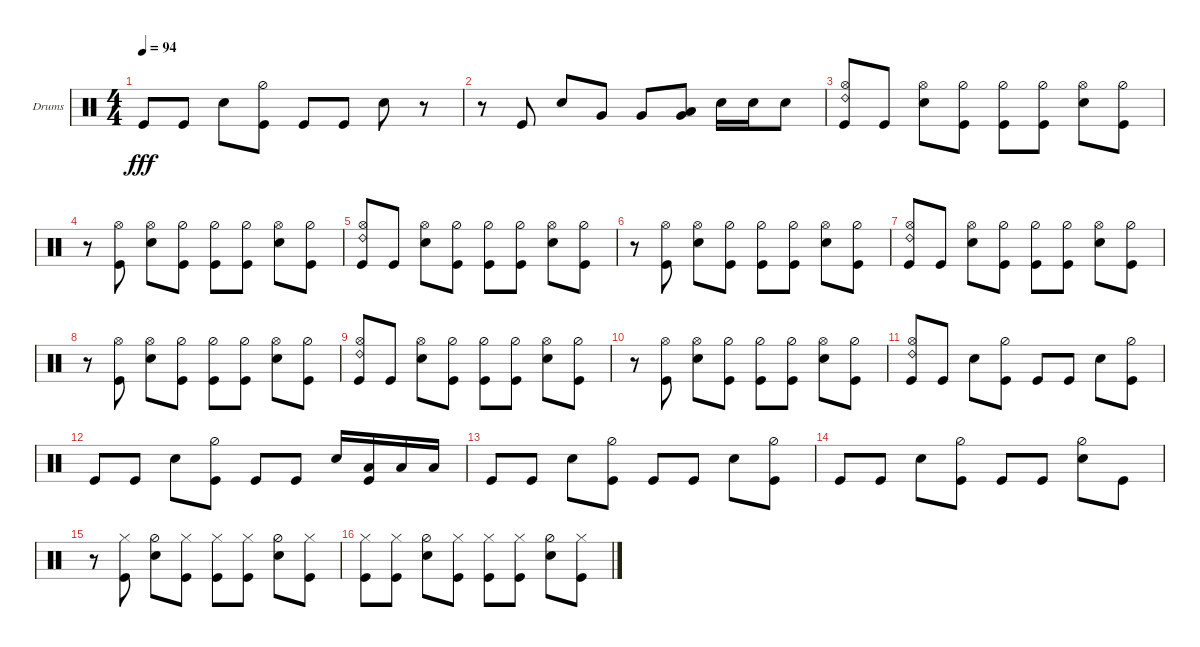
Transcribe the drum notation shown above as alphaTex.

\defaultSystemsLayout 4
\bracketExtendMode groupsimilarinstruments
\firstSystemTrackNameOrientation horizontal
\otherSystemsTrackNameOrientation horizontal
\track ("Drumkit" "Drums") {instrument percussion}
\staff {score}
\articulation defaults
\ts (4 4)
\tempo 94
\clef neutral
\scale
0.333333
\ks c "Kick (hit)".8{dy fff} "Kick (hit)".8 "Snare (hit) 2".8
("Kick (hit)" "Hi-Hat (half)").8 "Kick (hit)".8 "Kick (hit)".8 "Snare (hit) 2".8 r.8 |
\scale
0.333333 r.8 "Kick (hit)".8 "Snare (hit) 2".8 "Very Low Tom (hit)".8 "Very Low Tom (hit)".8 ("Low Tom (hit)" "Very Low Tom (hit)").8 "Snare (hit) 2".16 "Snare (hit) 2".16 "Snare (hit) 2".8 |
("Hi-Hat (open)" "Ride (bell) 2" "Kick (hit)").8 "Kick (hit)".8 ("Hi-Hat (open)" "Snare (hit) 2").8 ("Hi-Hat (half)" "Kick (hit)").8 ("Hi-Hat (half)" "Kick (hit)").8 ("Hi-Hat (half)" "Kick (hit)").8 ("Hi-Hat (open)" "Snare (hit) 2").8 ("Hi-Hat (half)" "Kick (hit)").8 |
r.8 ("Kick (hit)" "Hi-Hat (open)").8 ("Hi-Hat (open)" "Snare (hit) 2").8 ("Hi-Hat (half)" "Kick (hit)").8 ("Hi-Hat (half)" "Kick (hit)").8 ("Hi-Hat (half)" "Kick (hit)").8 ("Hi-Hat (open)" "Snare (hit) 2").8 ("Hi-Hat (half)" "Kick (hit)").8 |
("Hi-Hat (open)" "Ride (bell) 2" "Kick (hit)").8 "Kick (hit)".8 ("Hi-Hat (open)" "Snare (hit) 2").8 ("Hi-Hat (half)" "Kick (hit)").8 ("Hi-Hat (half)" "Kick (hit)").8 ("Hi-Hat (half)" "Kick (hit)").8 ("Hi-Hat (open)" "Snare (hit) 2").8 ("Hi-Hat (half)" "Kick (hit)").8 |
r.8 ("Kick (hit)" "Hi-Hat (open)").8 ("Hi-Hat (open)" "Snare (hit) 2").8 ("Hi-Hat (half)" "Kick (hit)").8 ("Hi-Hat (half)" "Kick (hit)").8 ("Hi-Hat (half)" "Kick (hit)").8 ("Hi-Hat (open)" "Snare (hit) 2").8 ("Hi-Hat (half)" "Kick (hit)").8 |
("Hi-Hat (open)" "Ride (bell) 2" "Kick (hit)").8 "Kick (hit)".8 ("Hi-Hat (open)" "Snare (hit) 2").8 ("Hi-Hat (half)" "Kick (hit)").8 ("Hi-Hat (half)" "Kick (hit)").8 ("Hi-Hat (half)" "Kick (hit)").8 ("Hi-Hat (open)" "Snare (hit) 2").8 ("Hi-Hat (half)" "Kick (hit)").8 |
r.8 ("Kick (hit)" "Hi-Hat (open)").8 ("Hi-Hat (open)" "Snare (hit) 2").8 ("Hi-Hat (half)" "Kick (hit)").8 ("Hi-Hat (half)" "Kick (hit)").8 ("Hi-Hat (half)" "Kick (hit)").8 ("Hi-Hat (open)" "Snare (hit) 2").8 ("Hi-Hat (half)" "Kick (hit)").8 |
("Hi-Hat (open)" "Ride (bell) 2" "Kick (hit)").8 "Kick (hit)".8 ("Hi-Hat (open)" "Snare (hit) 2").8 ("Hi-Hat (half)" "Kick (hit)").8 ("Hi-Hat (half)" "Kick (hit)").8 ("Hi-Hat (half)" "Kick (hit)").8 ("Hi-Hat (open)" "Snare (hit) 2").8 ("Hi-Hat (half)" "Kick (hit)").8 |
r.8 ("Kick (hit)" "Hi-Hat (open)").8 ("Hi-Hat (open)" "Snare (hit) 2").8 ("Hi-Hat (half)" "Kick (hit)").8 ("Hi-Hat (half)" "Kick (hit)").8 ("Hi-Hat (half)" "Kick (hit)").8 ("Hi-Hat (open)" "Snare (hit) 2").8 ("Hi-Hat (half)" "Kick (hit)").8 |
\scale
0.333333 ("Hi-Hat (open)" "Ride (bell) 2" "Kick (hit)").8 "Kick (hit)".8 "Snare (hit) 2".8 ("Kick (hit)" "Hi-Hat (half)").8 "Kick (hit)".8 "Kick (hit)".8 "Snare (hit) 2".8 ("Kick (hit)" "Hi-Hat (half)").8 |
\scale
0.333333 "Kick (hit)".8 "Kick (hit)".8 "Snare (hit) 2".8 ("Kick (hit)" "Hi-Hat (half)").8 "Kick (hit)".8 "Kick (hit)".8 "Snare (hit) 2".16 ("Kick (hit)" "Low Tom (hit)").16 "Low Tom (hit)".16 "Low Tom (hit)".16 |
\scale
0.333333 "Kick (hit)".8 "Kick (hit)".8 "Snare (hit) 2".8 ("Kick (hit)" "Hi-Hat (half)").8 "Kick (hit)".8 "Kick (hit)".8 "Snare (hit) 2".8 ("Kick (hit)" "Hi-Hat (half)").8 |
"Kick (hit)".8 "Kick (hit)".8 "Snare (hit) 2".8 ("Kick (hit)" "Hi-Hat (half)").8 "Kick (hit)".8 "Kick (hit)".8 ("Snare (hit) 2" "Hi-Hat (half)").8 "Kick (hit)".8 |
r.8 ("Kick (hit)" "Hi-Hat (closed)").8 ("Snare (hit) 2" "Hi-Hat (half)").8 ("Kick (hit)" "Hi-Hat (closed)").8 ("Kick (hit)" "Hi-Hat (closed)").8 ("Kick (hit)" "Hi-Hat (closed)").8 ("Snare (hit) 2" "Hi-Hat (half)").8 ("Kick (hit)" "Hi-Hat (closed)").8 |
("Kick (hit)" "Hi-Hat (closed)").8 ("Kick (hit)" "Hi-Hat (closed)").8 ("Snare (hit) 2" "Hi-Hat (half)").8 ("Kick (hit)" "Hi-Hat (closed)").8 ("Kick (hit)" "Hi-Hat (closed)").8 ("Kick (hit)" "Hi-Hat (closed)").8 ("Snare (hit) 2" "Hi-Hat (half)").8 ("Kick (hit)" "Hi-Hat (closed)").8
